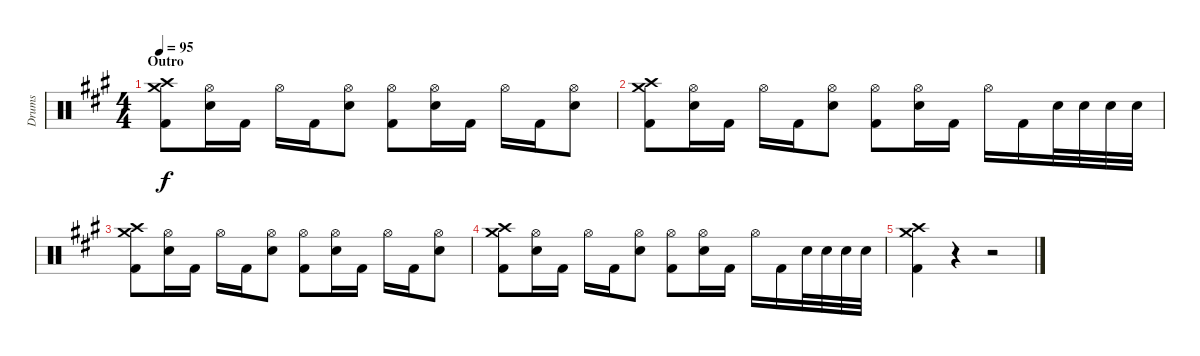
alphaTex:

\track ("Drums" "Drums") {instrument percussion}
\staff {score}
\articulation defaults
\ts (4 4)
\section ("" "Outro")
\tempo 95
\clef neutral
\ks a
("Crash high (hit)" "Crash medium (hit)" "Kick (hit) 2").8{dy f} ("Hi-Hat (open)" "Electric Snare (hit)").16 "Kick (hit) 2".16 "Hi-Hat (open)".16 "Kick (hit) 2".16 ("Hi-Hat (open)" "Electric Snare (hit)").8 ("Hi-Hat (open)" "Kick (hit) 2").8 ("Hi-Hat (open)" "Electric Snare (hit)").16 "Kick (hit) 2".16 "Hi-Hat (open)".16 "Kick (hit) 2".16 ("Hi-Hat (open)" "Electric Snare (hit)").8 |
("Crash high (hit)" "Crash medium (hit)" "Kick (hit) 2").8 ("Hi-Hat (open)" "Electric Snare (hit)").16 "Kick (hit) 2".16 "Hi-Hat (open)".16 "Kick (hit) 2".16 ("Hi-Hat (open)" "Electric Snare (hit)").8 ("Hi-Hat (open)" "Kick (hit) 2").8 ("Hi-Hat (open)" "Electric Snare (hit)").16 "Kick (hit) 2".16 "Hi-Hat (open)".16 "Kick (hit) 2".16 "Electric Snare (hit)".32 "Electric Snare (hit)".32 "Electric Snare (hit)".32 "Electric Snare (hit)".32 |
("Crash high (hit)" "Crash medium (hit)" "Kick (hit) 2").8 ("Hi-Hat (open)" "Electric Snare (hit)").16 "Kick (hit) 2".16 "Hi-Hat (open)".16 "Kick (hit) 2".16 ("Hi-Hat (open)" "Electric Snare (hit)").8 ("Hi-Hat (open)" "Kick (hit) 2").8 ("Hi-Hat (open)" "Electric Snare (hit)").16 "Kick (hit) 2".16 "Hi-Hat (open)".16 "Kick (hit) 2".16 ("Hi-Hat (open)" "Electric Snare (hit)").8 |
("Crash high (hit)" "Crash medium (hit)" "Kick (hit) 2").8 ("Hi-Hat (open)" "Electric Snare (hit)").16 "Kick (hit) 2".16 "Hi-Hat (open)".16 "Kick (hit) 2".16 ("Hi-Hat (open)" "Electric Snare (hit)").8 ("Hi-Hat (open)" "Kick (hit) 2").8 ("Hi-Hat (open)" "Electric Snare (hit)").16 "Kick (hit) 2".16 "Hi-Hat (open)".16 "Kick (hit) 2".16 "Electric Snare (hit)".32 "Electric Snare (hit)".32 "Electric Snare (hit)".32 "Electric Snare (hit)".32 |
("Crash high (hit)" "Crash medium (hit)" "Kick (hit) 2").4 r.4 r.2
